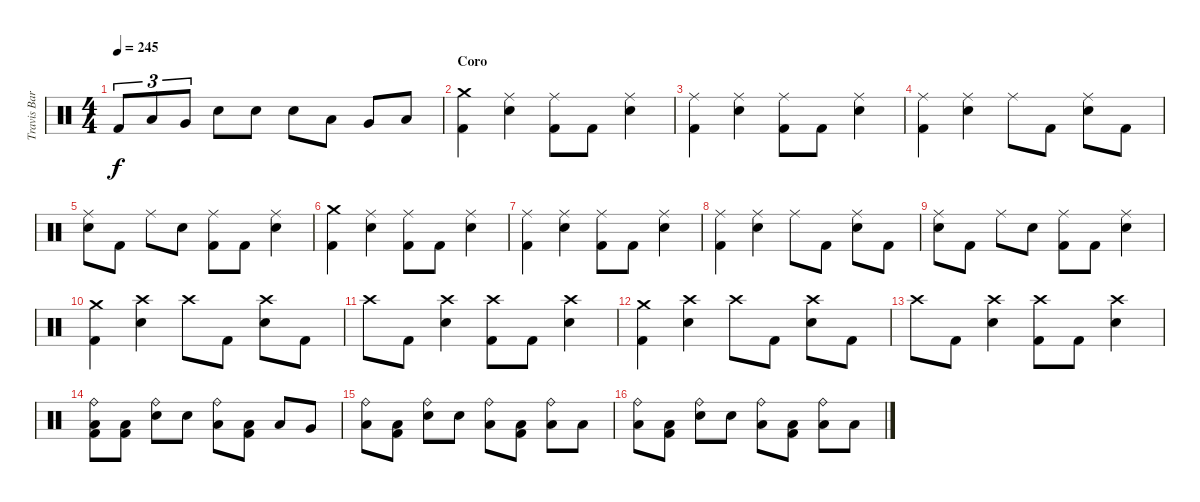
\track ("Travis Barker - Batería" "Travis Bar") {instrument percussion}
\staff {score}
\articulation defaults
\ts (4 4)
\tempo 245
\clef neutral
\ks c "Kick (hit) 2".8{tu (3 2) dy f} "Low Tom (hit)".8{tu (3 2)} "Very Low Tom (hit)".8{tu (3 2)} "Electric Snare (hit)".8 "Electric Snare (hit)".8 "Electric Snare (hit)".8 "Low Tom (hit)".8 "Very Low Tom (hit)".8 "Low Floor Tom (hit)".8
|
\section ("" "Coro")
("Crash medium (hit)" "Kick (hit) 2").4 ("Ride (middle)" "Electric Snare (hit)").4 ("Ride (middle)" "Kick (hit) 2").8 "Kick (hit) 2".8 ("Ride (middle)" "Electric Snare (hit)").4 |
("Ride (middle)" "Kick (hit) 2").4 ("Ride (middle)" "Electric Snare (hit)").4 ("Ride (middle)" "Kick (hit) 2").8 "Kick (hit) 2".8 ("Ride (middle)" "Electric Snare (hit)").4 |
("Ride (middle)" "Kick (hit) 2").4 ("Ride (middle)" "Electric Snare (hit)").4 "Ride (middle)".8 "Kick (hit) 2".8 ("Ride (middle)" "Electric Snare (hit)").8 "Kick (hit) 2".8 |
("Ride (middle)" "Electric Snare (hit)").8 "Kick (hit) 2".8 "Ride (middle)".8 "Electric Snare (hit)".8 ("Ride (middle)" "Kick (hit) 2").8 "Kick (hit) 2".8 ("Ride (middle)" "Electric Snare (hit)").4 |
("Crash medium (hit)" "Kick (hit) 2").4 ("Ride (middle)" "Electric Snare (hit)").4 ("Ride (middle)" "Kick (hit) 2").8 "Kick (hit) 2".8 ("Ride (middle)" "Electric Snare (hit)").4 |
("Ride (middle)" "Kick (hit) 2").4 ("Ride (middle)" "Electric Snare (hit)").4 ("Ride (middle)" "Kick (hit) 2").8 "Kick (hit) 2".8 ("Ride (middle)" "Electric Snare (hit)").4 |
("Ride (middle)" "Kick (hit) 2").4 ("Ride (middle)" "Electric Snare (hit)").4 "Ride (middle)".8 "Kick (hit) 2".8 ("Ride (middle)" "Electric Snare (hit)").8 "Kick (hit) 2".8 |
("Ride (middle)" "Electric Snare (hit)").8 "Kick (hit) 2".8 "Ride (middle)".8 "Electric Snare (hit)".8 ("Ride (middle)" "Kick (hit) 2").8 "Kick (hit) 2".8 ("Ride (middle)" "Electric Snare (hit)").4 |
("Crash medium (hit)" "Kick (hit) 2").4 ("Crash high (hit)" "Electric Snare (hit)").4 "Crash high (hit)".8 "Kick (hit) 2".8 ("Crash high (hit)" "Electric Snare (hit)").8 "Kick (hit) 2".8 |
"Crash high (hit)".8 "Kick (hit) 2".8 ("Crash high (hit)" "Electric Snare (hit)").4 ("Crash high (hit)" "Kick (hit) 2").8 "Kick (hit) 2".8 ("Crash high (hit)" "Electric Snare (hit)").4 |
("Crash medium (hit)" "Kick (hit) 2").4 ("Crash high (hit)" "Electric Snare (hit)").4 "Crash high (hit)".8 "Kick (hit) 2".8 ("Crash high (hit)" "Electric Snare (hit)").8 "Kick (hit) 2".8 |
"Crash high (hit)".8 "Kick (hit) 2".8 ("Crash high (hit)" "Electric Snare (hit)").4 ("Crash high (hit)" "Kick (hit) 2").8 "Kick (hit) 2".8 ("Crash high (hit)" "Electric Snare (hit)").4 |
("Ride (bell)" "Low Floor Tom (hit)" "Kick (hit) 2").8 ("Low Floor Tom (hit)" "Kick (hit) 2").8 ("Ride (bell)" "Electric Snare (hit)").8 "Electric Snare (hit)".8 ("Ride (bell)" "Low Floor Tom (hit)").8 ("Low Floor Tom (hit)" "Kick (hit) 2").8 "Low Tom (hit)".8 "Very Low Tom (hit)".8 |
("Ride (bell)" "Low Floor Tom (hit)").8 ("Low Floor Tom (hit)" "Kick (hit) 2").8 ("Ride (bell)" "Electric Snare (hit)").8 "Electric Snare (hit)".8 ("Ride (bell)" "Low Floor Tom (hit)").8 ("Low Floor Tom (hit)" "Kick (hit) 2").8 ("Ride (bell)" "Low Tom (hit)").8 "Low Tom (hit)".8 |
("Ride (bell)" "Low Floor Tom (hit)").8 ("Low Floor Tom (hit)" "Kick (hit) 2").8 ("Ride (bell)" "Electric Snare (hit)").8 "Electric Snare (hit)".8 ("Ride (bell)" "Low Floor Tom (hit)").8 ("Low Floor Tom (hit)" "Kick (hit) 2").8 ("Ride (bell)" "Low Tom (hit)").8 "Low Tom (hit)".8
